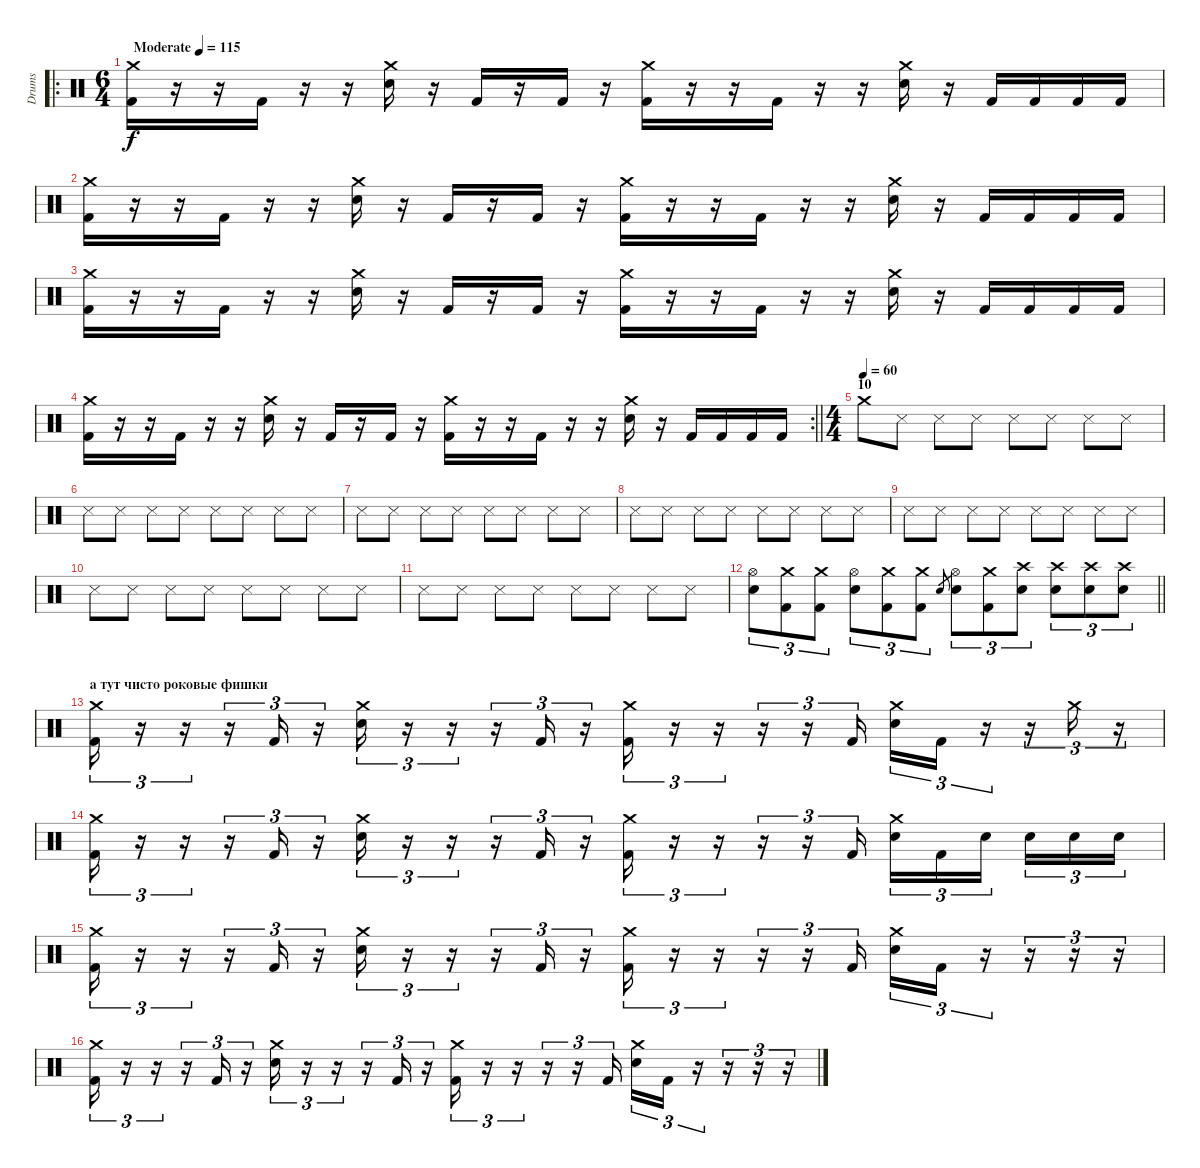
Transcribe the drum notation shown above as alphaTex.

\track ("Drums" "Drums") {instrument percussion}
\staff {score}
\articulation defaults
\ro
\ts (6 4)
\tempo (115 "Moderate")
\clef neutral
\ks c
("Crash medium (hit)" "Kick (hit) 2").16{dy f} r.16 r.16 "Kick (hit) 2".16 r.16 r.16 ("Crash medium (hit)" "Electric Snare (hit)").16 r.16 "Kick (hit) 2".16 r.16 "Kick (hit) 2".16 r.16 ("Crash medium (hit)" "Kick (hit) 2").16 r.16 r.16 "Kick (hit) 2".16 r.16 r.16 ("Crash medium (hit)" "Electric Snare (hit)").16 r.16 "Kick (hit) 2".16 "Kick (hit) 2".16 "Kick (hit) 2".16 "Kick (hit) 2".16 |
("Crash medium (hit)" "Kick (hit) 2").16 r.16 r.16 "Kick (hit) 2".16 r.16 r.16 ("Crash medium (hit)" "Electric Snare (hit)").16 r.16 "Kick (hit) 2".16 r.16 "Kick (hit) 2".16 r.16 ("Crash medium (hit)" "Kick (hit) 2").16 r.16 r.16 "Kick (hit) 2".16 r.16 r.16 ("Crash medium (hit)" "Electric Snare (hit)").16 r.16 "Kick (hit) 2".16 "Kick (hit) 2".16 "Kick (hit) 2".16 "Kick (hit) 2".16 |
("Crash medium (hit)" "Kick (hit) 2").16 r.16 r.16 "Kick (hit) 2".16 r.16 r.16 ("Crash medium (hit)" "Electric Snare (hit)").16 r.16 "Kick (hit) 2".16 r.16 "Kick (hit) 2".16 r.16 ("Crash medium (hit)" "Kick (hit) 2").16 r.16 r.16 "Kick (hit) 2".16 r.16 r.16 ("Crash medium (hit)" "Electric Snare (hit)").16 r.16 "Kick (hit) 2".16 "Kick (hit) 2".16 "Kick (hit) 2".16 "Kick (hit) 2".16 |
\rc 2
\barLineRight lightlight
("Crash medium (hit)" "Kick (hit) 2").16 r.16 r.16 "Kick (hit) 2".16 r.16 r.16 ("Crash medium (hit)" "Electric Snare (hit)").16 r.16 "Kick (hit) 2".16 r.16 "Kick (hit) 2".16 r.16 ("Crash medium (hit)" "Kick (hit) 2").16 r.16 r.16 "Kick (hit) 2".16 r.16 r.16 ("Crash medium (hit)" "Electric Snare (hit)").16 r.16 "Kick (hit) 2".16 "Kick (hit) 2".16 "Kick (hit) 2".16 "Kick (hit) 2".16 |
\ts (4 4)
\section ("" "10")
\tempo (60)
"Crash medium (hit)".8 "Snare (side stick) 3".8 "Snare (side stick) 3".8 "Snare (side stick) 3".8 "Snare (side stick) 3".8 "Snare (side stick) 3".8 "Snare (side stick) 3".8 "Snare (side stick) 3".8 |
"Snare (side stick) 3".8 "Snare (side stick) 3".8 "Snare (side stick) 3".8 "Snare (side stick) 3".8 "Snare (side stick) 3".8 "Snare (side stick) 3".8 "Snare (side stick) 3".8 "Snare (side stick) 3".8 |
"Snare (side stick) 3".8 "Snare (side stick) 3".8 "Snare (side stick) 3".8 "Snare (side stick) 3".8 "Snare (side stick) 3".8 "Snare (side stick) 3".8 "Snare (side stick) 3".8 "Snare (side stick) 3".8 |
"Snare (side stick) 3".8 "Snare (side stick) 3".8 "Snare (side stick) 3".8 "Snare (side stick) 3".8 "Snare (side stick) 3".8 "Snare (side stick) 3".8 "Snare (side stick) 3".8 "Snare (side stick) 3".8 |
"Snare (side stick) 3".8 "Snare (side stick) 3".8 "Snare (side stick) 3".8 "Snare (side stick) 3".8 "Snare (side stick) 3".8 "Snare (side stick) 3".8 "Snare (side stick) 3".8 "Snare (side stick) 3".8 |
"Snare (side stick) 3".8 "Snare (side stick) 3".8 "Snare (side stick) 3".8 "Snare (side stick) 3".8 "Snare (side stick) 3".8 "Snare (side stick) 3".8 "Snare (side stick) 3".8 "Snare (side stick) 3".8 |
"Snare (side stick) 3".8 "Snare (side stick) 3".8 "Snare (side stick) 3".8 "Snare (side stick) 3".8 "Snare (side stick) 3".8 "Snare (side stick) 3".8 "Snare (side stick) 3".8 "Snare (side stick) 3".8 |
\barLineRight lightlight
("Hi-Hat (open)" "Electric Snare (hit)").8{tu (3 2)} ("Crash medium (hit)" "Kick (hit) 2").8{tu (3 2)} ("Crash medium (hit)" "Kick (hit) 2").8{tu (3 2)} ("Hi-Hat (open)" "Electric Snare (hit)").8{tu (3 2)} ("Crash medium (hit)" "Kick (hit) 2").8{tu (3 2)} ("Crash medium (hit)" "Kick (hit) 2").8{tu (3 2)} "Electric Snare (hit)".8{gr} ("Hi-Hat (open)" "Electric Snare (hit)").8{tu (3 2)} ("Crash medium (hit)" "Kick (hit) 2").8{tu (3 2)} ("Crash high (hit)" "Electric Snare (hit)").8{tu (3 2)} ("Crash high (hit)" "Electric Snare (hit)").8{tu (3 2)} ("Crash high (hit)" "Electric Snare (hit)").8{tu (3 2)} ("Crash high (hit)" "Electric Snare (hit)").8{tu (3 2)} |
\section ("" "а тут чисто роковые фишки")
("Crash medium (hit)" "Kick (hit) 2").16{tu (3 2)} r.16{tu (3 2)} r.16{tu (3 2)} r.16{tu (3 2)} "Kick (hit) 2".16{tu (3 2)} r.16{tu (3 2)} ("Crash medium (hit)" "Electric Snare (hit)").16{tu (3 2)} r.16{tu (3 2)} r.16{tu (3 2)} r.16{tu (3 2)} "Kick (hit) 2".16{tu (3 2)} r.16{tu (3 2)} ("Crash medium (hit)" "Kick (hit) 2").16{tu (3 2)} r.16{tu (3 2)} r.16{tu (3 2)} r.16{tu (3 2)} r.16{tu (3 2)} "Kick (hit) 2".16{tu (3 2)} ("Crash medium (hit)" "Electric Snare (hit)").16{tu (3 2)} "Kick (hit) 2".16{tu (3 2)} r.16{tu (3 2)} r.16{tu (3 2)} "Crash medium (hit)".16{tu (3 2)} r.16{tu (3 2)} |
("Crash medium (hit)" "Kick (hit) 2").16{tu (3 2)} r.16{tu (3 2)} r.16{tu (3 2)} r.16{tu (3 2)} "Kick (hit) 2".16{tu (3 2)} r.16{tu (3 2)} ("Crash medium (hit)" "Electric Snare (hit)").16{tu (3 2)} r.16{tu (3 2)} r.16{tu (3 2)} r.16{tu (3 2)} "Kick (hit) 2".16{tu (3 2)} r.16{tu (3 2)} ("Crash medium (hit)" "Kick (hit) 2").16{tu (3 2)} r.16{tu (3 2)} r.16{tu (3 2)} r.16{tu (3 2)} r.16{tu (3 2)} "Kick (hit) 2".16{tu (3 2)} ("Crash medium (hit)" "Electric Snare (hit)").16{tu (3 2)} "Kick (hit) 2".16{tu (3 2)} "Electric Snare (hit)".16{tu (3 2) beam splitsecondary} "Electric Snare (hit)".16{tu (3 2)} "Electric Snare (hit)".16{tu (3 2)} "Electric Snare (hit)".16{tu (3 2)} |
("Crash medium (hit)" "Kick (hit) 2").16{tu (3 2)} r.16{tu (3 2)} r.16{tu (3 2)} r.16{tu (3 2)} "Kick (hit) 2".16{tu (3 2)} r.16{tu (3 2)} ("Crash medium (hit)" "Electric Snare (hit)").16{tu (3 2)} r.16{tu (3 2)} r.16{tu (3 2)} r.16{tu (3 2)} "Kick (hit) 2".16{tu (3 2)} r.16{tu (3 2)} ("Crash medium (hit)" "Kick (hit) 2").16{tu (3 2)} r.16{tu (3 2)} r.16{tu (3 2)} r.16{tu (3 2)} r.16{tu (3 2)} "Kick (hit) 2".16{tu (3 2)} ("Crash medium (hit)" "Electric Snare (hit)").16{tu (3 2)} "Kick (hit) 2".16{tu (3 2)} r.16{tu (3 2)} r.16{tu (3 2)} r.16{tu (3 2)} r.16{tu (3 2)} |
("Crash medium (hit)" "Kick (hit) 2").16{tu (3 2)} r.16{tu (3 2)} r.16{tu (3 2)} r.16{tu (3 2)} "Kick (hit) 2".16{tu (3 2)} r.16{tu (3 2)} ("Crash medium (hit)" "Electric Snare (hit)").16{tu (3 2)} r.16{tu (3 2)} r.16{tu (3 2)} r.16{tu (3 2)} "Kick (hit) 2".16{tu (3 2)} r.16{tu (3 2)} ("Crash medium (hit)" "Kick (hit) 2").16{tu (3 2)} r.16{tu (3 2)} r.16{tu (3 2)} r.16{tu (3 2)} r.16{tu (3 2)} "Kick (hit) 2".16{tu (3 2)} ("Crash medium (hit)" "Electric Snare (hit)").16{tu (3 2)} "Kick (hit) 2".16{tu (3 2)} r.16{tu (3 2)} r.16{tu (3 2)} r.16{tu (3 2)} r.16{tu (3 2)}
